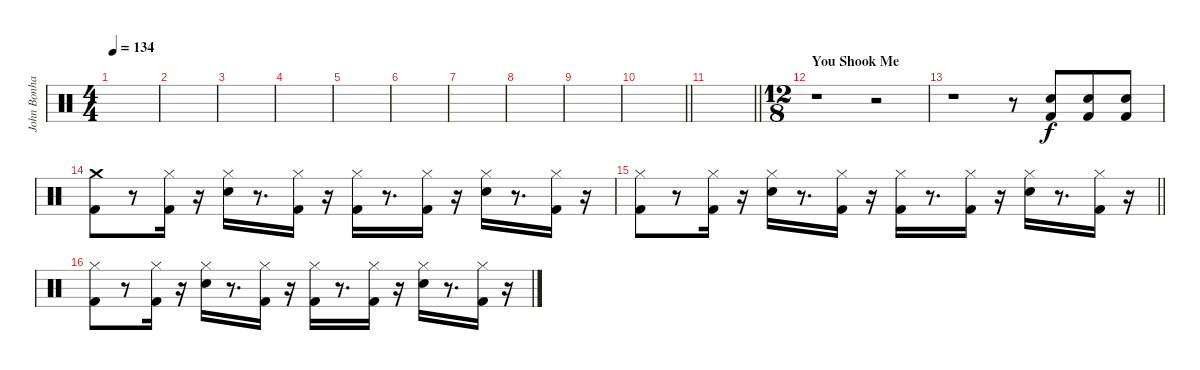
\track ("John Bonham - Drums" "John Bonha") {instrument percussion}
\staff {score}
\articulation defaults
\ts (4 4)
\tempo 134
\clef neutral
\ks c
|
|
|
|
|
|
|
|
|
\barLineRight lightlight
|
\barLineRight lightlight
|
\ts (12 8)
\section ("" "You Shook Me")
r.1{volume 13 balance 16} r.2 |
r.1 r.8 ("Electric Snare (hit)" "Kick (hit) 2").8 ("Electric Snare (hit)" "Kick (hit) 2").8 ("Electric Snare (hit)" "Kick (hit) 2").8 |
("Crash medium (hit)" "Kick (hit) 2").8 r.8 ("Kick (hit) 2" "Hi-Hat (closed)").16 r.16 ("Hi-Hat (closed)" "Electric Snare (hit)").16 r.8{d} ("Hi-Hat (closed)" "Kick (hit) 2").16 r.16 ("Hi-Hat (closed)" "Kick (hit) 2").16 r.8{d} ("Hi-Hat (closed)" "Kick (hit) 2").16 r.16 ("Hi-Hat (closed)" "Electric Snare (hit)").16 r.8{d} ("Hi-Hat (closed)" "Kick (hit) 2").16 r.16 |
\barLineRight lightlight
("Kick (hit) 2" "Hi-Hat (closed)").8 r.8 ("Kick (hit) 2" "Hi-Hat (closed)").16 r.16 ("Hi-Hat (closed)" "Electric Snare (hit)").16 r.8{d} ("Hi-Hat (closed)" "Kick (hit) 2").16 r.16 ("Hi-Hat (closed)" "Kick (hit) 2").16 r.8{d} ("Hi-Hat (closed)" "Kick (hit) 2").16 r.16 ("Hi-Hat (closed)" "Electric Snare (hit)").16 r.8{d} ("Hi-Hat (closed)" "Kick (hit) 2").16 r.16 |
("Kick (hit) 2" "Hi-Hat (closed)").8 r.8 ("Kick (hit) 2" "Hi-Hat (closed)").16 r.16 ("Hi-Hat (closed)" "Electric Snare (hit)").16 r.8{d} ("Hi-Hat (closed)" "Kick (hit) 2").16 r.16 ("Hi-Hat (closed)" "Kick (hit) 2").16 r.8{d} ("Hi-Hat (closed)" "Kick (hit) 2").16 r.16 ("Hi-Hat (closed)" "Electric Snare (hit)").16 r.8{d} ("Hi-Hat (closed)" "Kick (hit) 2").16 r.16
